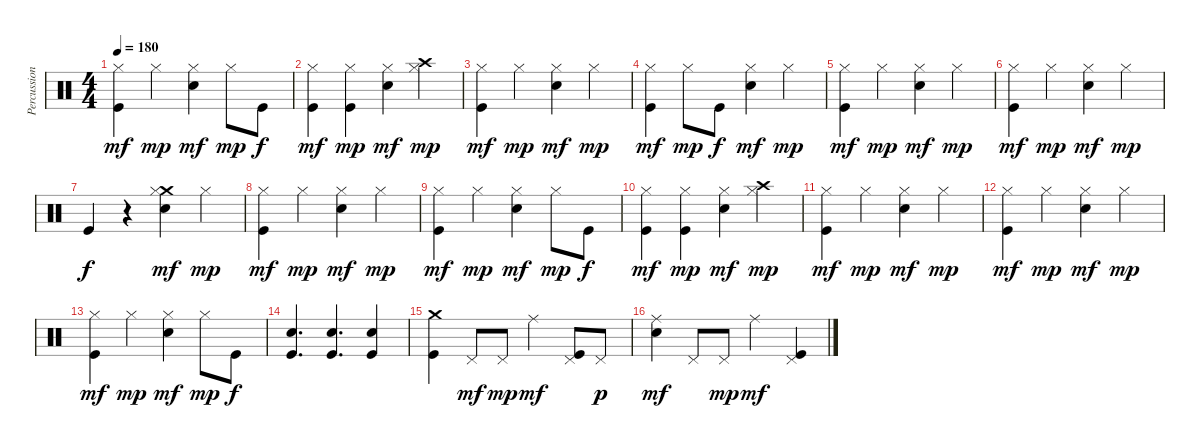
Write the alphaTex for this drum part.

\track ("Percussion" "Percussion") {instrument percussion}
\staff {score}
\articulation defaults
\ts (4 4)
\tempo 180
\clef neutral
\ks c
("Hi-Hat (closed)" "Kick (hit)").4{dy mf} "Hi-Hat (closed)".4{dy mp} ("Hi-Hat (closed)" "Snare (hit) 2").4{dy mf} "Hi-Hat (closed)".8{dy mp} "Kick (hit)".8{dy f} |
("Hi-Hat (closed)" "Kick (hit)").4{dy mf} ("Hi-Hat (closed)" "Kick (hit)").4{dy mp} ("Hi-Hat (closed)" "Snare (hit) 2").4{dy mf} ("Crash high (hit)" "Hi-Hat (closed)").4{dy mp} |
("Hi-Hat (closed)" "Kick (hit)").4{dy mf} "Hi-Hat (closed)".4{dy mp} ("Hi-Hat (closed)" "Snare (hit) 2").4{dy mf} "Hi-Hat (closed)".4{dy mp} |
("Hi-Hat (closed)" "Kick (hit)").4{dy mf} "Hi-Hat (closed)".8{dy mp} "Kick (hit)".8{dy f} ("Hi-Hat (closed)" "Snare (hit) 2").4{dy mf} "Hi-Hat (closed)".4{dy mp} |
("Hi-Hat (closed)" "Kick (hit)").4{dy mf} "Hi-Hat (closed)".4{dy mp} ("Hi-Hat (closed)" "Snare (hit) 2").4{dy mf} "Hi-Hat (closed)".4{dy mp} |
("Hi-Hat (closed)" "Kick (hit)").4{dy mf} "Hi-Hat (closed)".4{dy mp} ("Hi-Hat (closed)" "Snare (hit) 2").4{dy mf} "Hi-Hat (closed)".4{dy mp} |
"Kick (hit)".4{dy f} r.4 ("Crash medium (hit)" "Hi-Hat (closed)" "Snare (hit) 2").4{dy mf} "Hi-Hat (closed)".4{dy mp} |
("Hi-Hat (closed)" "Kick (hit)").4{dy mf} "Hi-Hat (closed)".4{dy mp} ("Hi-Hat (closed)" "Snare (hit) 2").4{dy mf} "Hi-Hat (closed)".4{dy mp} |
("Hi-Hat (closed)" "Kick (hit)").4{dy mf} "Hi-Hat (closed)".4{dy mp} ("Hi-Hat (closed)" "Snare (hit) 2").4{dy mf} "Hi-Hat (closed)".8{dy mp} "Kick (hit)".8{dy f} |
("Hi-Hat (closed)" "Kick (hit)").4{dy mf} ("Hi-Hat (closed)" "Kick (hit)").4{dy mp} ("Hi-Hat (closed)" "Snare (hit) 2").4{dy mf} ("Crash high (hit)" "Hi-Hat (closed)").4{dy mp} |
("Hi-Hat (closed)" "Kick (hit)").4{dy mf} "Hi-Hat (closed)".4{dy mp} ("Hi-Hat (closed)" "Snare (hit) 2").4{dy mf} "Hi-Hat (closed)".4{dy mp} |
("Hi-Hat (closed)" "Kick (hit)").4{dy mf} "Hi-Hat (closed)".4{dy mp} ("Hi-Hat (closed)" "Snare (hit) 2").4{dy mf} "Hi-Hat (closed)".4{dy mp} |
("Hi-Hat (closed)" "Kick (hit)").4{dy mf} "Hi-Hat (closed)".4{dy mp} ("Hi-Hat (closed)" "Snare (hit) 2").4{dy mf} "Hi-Hat (closed)".8{dy mp} "Kick (hit)".8{dy f} |
("Snare (hit) 2" "Kick (hit)").4{d} ("Snare (hit) 2" "Kick (hit)").4{d} ("Snare (hit) 2" "Kick (hit)").4 |
("Crash medium (hit)" "Kick (hit)").4 "Pedal Hi-Hat (hit)".8{dy mf} "Pedal Hi-Hat (hit)".8{dy mp} "Ride (middle)".4{dy mf} ("Pedal Hi-Hat (hit)" "Kick (hit)").8 "Pedal Hi-Hat (hit)".8{dy p} |
("Ride (middle)" "Snare (hit) 2").4{dy mf} "Pedal Hi-Hat (hit)".8 "Pedal Hi-Hat (hit)".8{dy mp} "Ride (middle)".4{dy mf} ("Pedal Hi-Hat (hit)" "Kick (hit)").4
